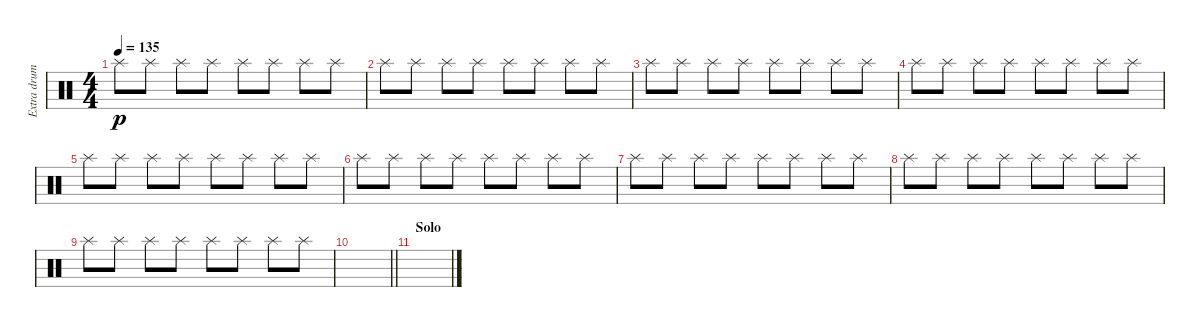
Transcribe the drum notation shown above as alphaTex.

\track ("Extra drums" "Extra drum") {instrument percussion}
\staff {score}
\articulation defaults
\ts (4 4)
\tempo 135
\clef neutral
\ks c "Splash (hit)".8{dy p} "Splash (hit)".8 "Splash (hit)".8 "Splash (hit)".8 "Splash (hit)".8 "Splash (hit)".8 "Splash (hit)".8 "Splash (hit)".8
|
"Splash (hit)".8 "Splash (hit)".8 "Splash (hit)".8 "Splash (hit)".8 "Splash (hit)".8 "Splash (hit)".8 "Splash (hit)".8 "Splash (hit)".8 |
"Splash (hit)".8 "Splash (hit)".8 "Splash (hit)".8 "Splash (hit)".8 "Splash (hit)".8 "Splash (hit)".8 "Splash (hit)".8 "Splash (hit)".8 |
"Splash (hit)".8 "Splash (hit)".8 "Splash (hit)".8 "Splash (hit)".8 "Splash (hit)".8 "Splash (hit)".8 "Splash (hit)".8 "Splash (hit)".8 |
"Splash (hit)".8 "Splash (hit)".8 "Splash (hit)".8 "Splash (hit)".8 "Splash (hit)".8 "Splash (hit)".8 "Splash (hit)".8 "Splash (hit)".8 |
"Splash (hit)".8 "Splash (hit)".8 "Splash (hit)".8 "Splash (hit)".8 "Splash (hit)".8 "Splash (hit)".8 "Splash (hit)".8 "Splash (hit)".8 |
"Splash (hit)".8 "Splash (hit)".8 "Splash (hit)".8 "Splash (hit)".8 "Splash (hit)".8 "Splash (hit)".8 "Splash (hit)".8 "Splash (hit)".8 |
"Splash (hit)".8 "Splash (hit)".8 "Splash (hit)".8 "Splash (hit)".8 "Splash (hit)".8 "Splash (hit)".8 "Splash (hit)".8 "Splash (hit)".8 |
"Splash (hit)".8 "Splash (hit)".8 "Splash (hit)".8 "Splash (hit)".8 "Splash (hit)".8 "Splash (hit)".8 "Splash (hit)".8 "Splash (hit)".8 |
\barLineRight lightlight
|
\section ("" "Solo")
